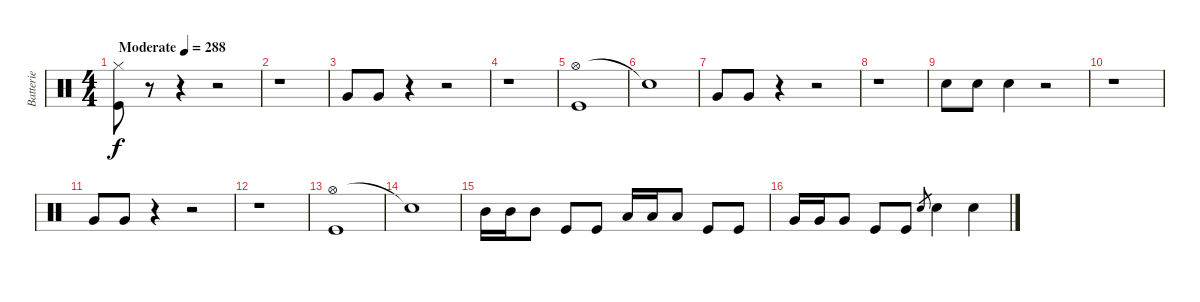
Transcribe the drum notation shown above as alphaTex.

\track ("Batterie" "Batterie") {instrument percussion}
\staff {score}
\articulation defaults
\ts (4 4)
\tempo (288 "Moderate")
\clef neutral
\ks c
("Hi-Hat (closed)" "Kick (hit)").8{dy f} r.8 r.4 r.2 |
r.1 |
"Very Low Tom (hit)".8 "Very Low Tom (hit)".8 r.4 r.2 |
r.1 |
("Hi-Hat (open)" "Kick (hit)").1 |
"Snare (hit)"{t}.1 |
"Very Low Tom (hit)".8 "Very Low Tom (hit)".8 r.4 r.2 |
r.1 |
"Snare (hit) 2".8 "Snare (hit) 2".8 "Snare (hit) 2".4 r.2 |
r.1 |
"Very Low Tom (hit)".8 "Very Low Tom (hit)".8 r.4 r.2 |
r.1 |
("Hi-Hat (open)" "Kick (hit)").1 |
"Snare (hit)"{t}.1 |
"Mid Tom (hit)".16 "Mid Tom (hit)".16 "Mid Tom (hit)".8 "Kick (hit)".8 "Kick (hit)".8 "Low Tom (hit)".16 "Low Tom (hit)".16 "Low Tom (hit)".8 "Kick (hit)".8 "Kick (hit)".8 |
"Very Low Tom (hit)".16 "Very Low Tom (hit)".16 "Very Low Tom (hit)".8 "Kick (hit)".8 "Kick (hit)".8 "Snare (hit) 2".8{gr} "Snare (hit) 2".4 "Snare (hit) 2".4
